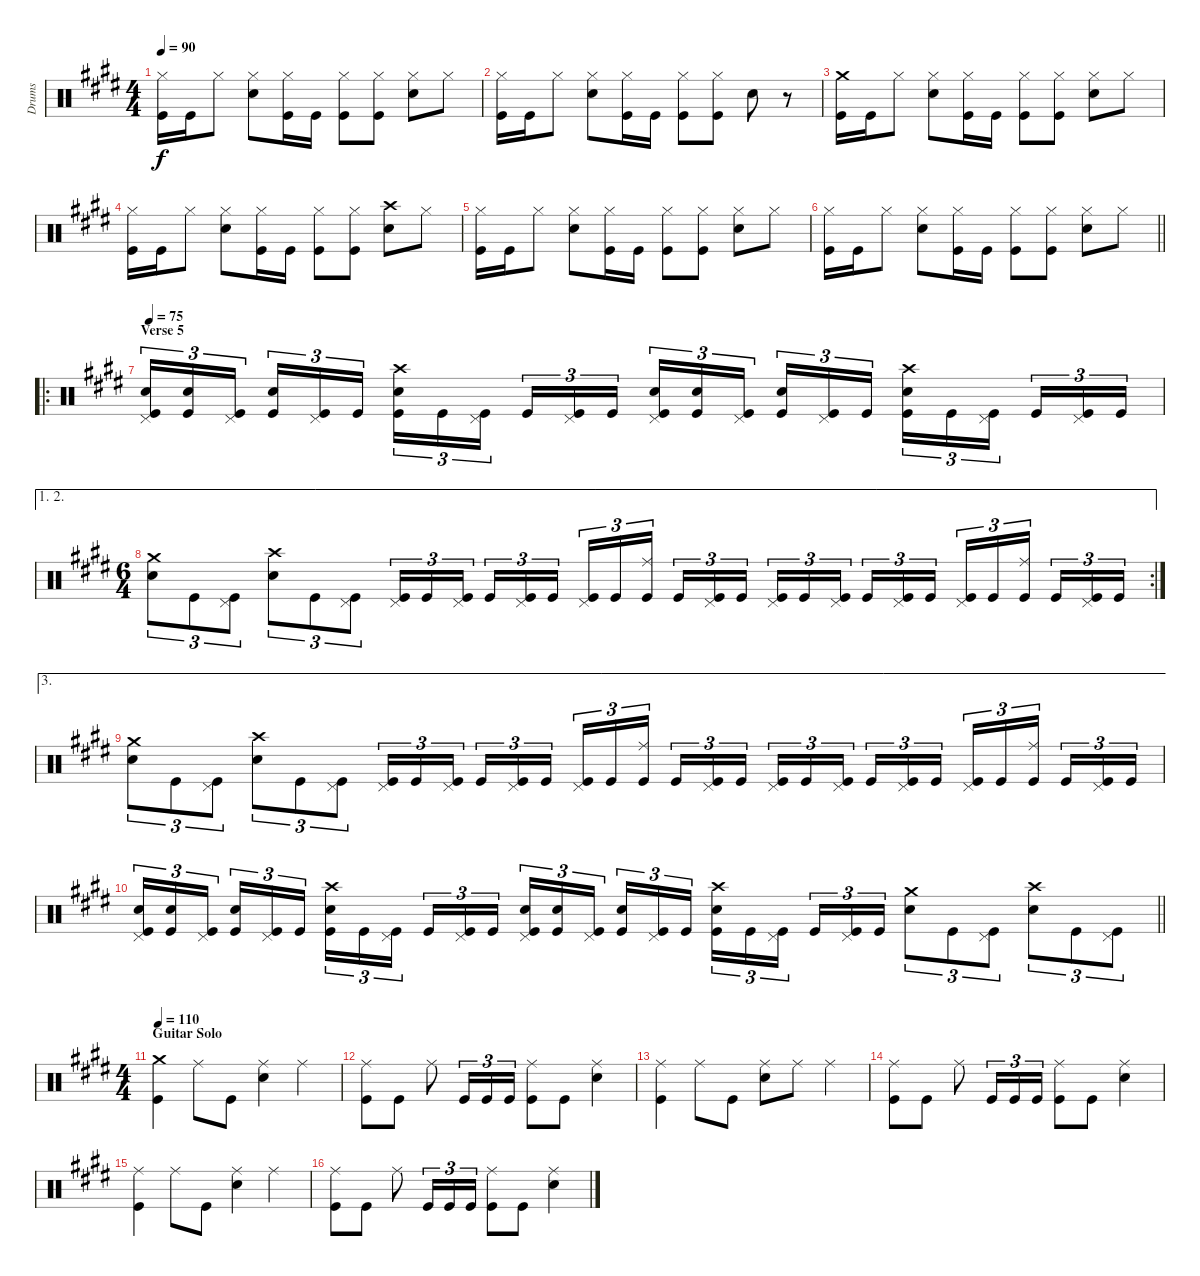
\track ("Drums" "Drums") {instrument percussion}
\staff {score}
\articulation defaults
\ts (4 4)
\tempo 90
\clef neutral
\ks e
("Hi-Hat (closed)" "Kick (hit)").16{dy f} "Kick (hit)".16 "Hi-Hat (closed)".8 ("Hi-Hat (closed)" "Snare (hit) 2").8 ("Hi-Hat (closed)" "Kick (hit)").16 "Kick (hit)".16 ("Hi-Hat (closed)" "Kick (hit)").8 ("Hi-Hat (closed)" "Kick (hit)").8 ("Hi-Hat (closed)" "Snare (hit) 2").8 "Hi-Hat (closed)".8 |
("Hi-Hat (closed)" "Kick (hit)").16 "Kick (hit)".16 "Hi-Hat (closed)".8 ("Hi-Hat (closed)" "Snare (hit) 2").8 ("Hi-Hat (closed)" "Kick (hit)").16 "Kick (hit)".16 ("Hi-Hat (closed)" "Kick (hit)").8 ("Hi-Hat (closed)" "Kick (hit)").8 "Snare (hit) 2".8 r.8 |
("Crash medium (hit)" "Kick (hit)").16 "Kick (hit)".16 "Hi-Hat (closed)".8 ("Hi-Hat (closed)" "Snare (hit) 2").8 ("Hi-Hat (closed)" "Kick (hit)").16 "Kick (hit)".16 ("Hi-Hat (closed)" "Kick (hit)").8 ("Hi-Hat (closed)" "Kick (hit)").8 ("Hi-Hat (closed)" "Snare (hit) 2").8 "Hi-Hat (closed)".8 |
("Hi-Hat (closed)" "Kick (hit)").16 "Kick (hit)".16 "Hi-Hat (closed)".8 ("Hi-Hat (closed)" "Snare (hit) 2").8 ("Hi-Hat (closed)" "Kick (hit)").16 "Kick (hit)".16 ("Hi-Hat (closed)" "Kick (hit)").8 ("Hi-Hat (closed)" "Kick (hit)").8 ("Crash high (hit)" "Snare (hit) 2").8 "Hi-Hat (closed)".8 |
("Hi-Hat (closed)" "Kick (hit)").16 "Kick (hit)".16 "Hi-Hat (closed)".8 ("Hi-Hat (closed)" "Snare (hit) 2").8 ("Hi-Hat (closed)" "Kick (hit)").16 "Kick (hit)".16 ("Hi-Hat (closed)" "Kick (hit)").8 ("Hi-Hat (closed)" "Kick (hit)").8 ("Hi-Hat (closed)" "Snare (hit) 2").8 "Hi-Hat (closed)".8 |
\barLineRight lightlight
("Hi-Hat (closed)" "Kick (hit)").16 "Kick (hit)".16 "Hi-Hat (closed)".8 ("Hi-Hat (closed)" "Snare (hit) 2").8 ("Hi-Hat (closed)" "Kick (hit)").16 "Kick (hit)".16 ("Hi-Hat (closed)" "Kick (hit)").8 ("Hi-Hat (closed)" "Kick (hit)").8 ("Hi-Hat (closed)" "Snare (hit) 2").8 "Hi-Hat (closed)".8 |
\ro
\section ("" "Verse 5")
\tempo 75
("Pedal Hi-Hat (hit)" "Snare (hit) 2" "Kick (hit)").16{tu (3 2)} ("Snare (hit) 2" "Kick (hit)").16{tu (3 2)} ("Pedal Hi-Hat (hit)" "Kick (hit)").16{tu (3 2) beam splitsecondary} ("Snare (hit) 2" "Kick (hit)").16{tu (3 2)} ("Pedal Hi-Hat (hit)" "Kick (hit)").16{tu (3 2)} "Kick (hit)".16{tu (3 2)} ("Crash high (hit)" "Snare (hit) 2" "Kick (hit)").16{tu (3 2)} "Kick (hit)".16{tu (3 2)} ("Pedal Hi-Hat (hit)" "Kick (hit)").16{tu (3 2) beam splitsecondary} "Kick (hit)".16{tu (3 2)} ("Pedal Hi-Hat (hit)" "Kick (hit)").16{tu (3 2)} "Kick (hit)".16{tu (3 2)} ("Pedal Hi-Hat (hit)" "Snare (hit) 2" "Kick (hit)").16{tu (3 2)} ("Snare (hit) 2" "Kick (hit)").16{tu (3 2)} ("Pedal Hi-Hat (hit)" "Kick (hit)").16{tu (3 2) beam splitsecondary} ("Snare (hit) 2" "Kick (hit)").16{tu (3 2)} ("Pedal Hi-Hat (hit)" "Kick (hit)").16{tu (3 2)} "Kick (hit)".16{tu (3 2)} ("Crash high (hit)" "Snare (hit) 2" "Kick (hit)").16{tu (3 2)} "Kick (hit)".16{tu (3 2)} ("Pedal Hi-Hat (hit)" "Kick (hit)").16{tu (3 2) beam splitsecondary} "Kick (hit)".16{tu (3 2)} ("Pedal Hi-Hat (hit)" "Kick (hit)").16{tu (3 2)} "Kick (hit)".16{tu (3 2)} |
\ae (1 2)
\rc 2
\ts (6 4)
("Crash medium (hit)" "Snare (hit) 2").8{tu (3 2)} "Kick (hit)".8{tu (3 2)} ("Pedal Hi-Hat (hit)" "Kick (hit)").8{tu (3 2)} ("Crash high (hit)" "Snare (hit) 2").8{tu (3 2)} "Kick (hit)".8{tu (3 2)} ("Pedal Hi-Hat (hit)" "Kick (hit)").8{tu (3 2)} ("Pedal Hi-Hat (hit)" "Kick (hit)").16{tu (3 2)} "Kick (hit)".16{tu (3 2)} ("Pedal Hi-Hat (hit)" "Kick (hit)").16{tu (3 2) beam splitsecondary} "Kick (hit)".16{tu (3 2)} ("Pedal Hi-Hat (hit)" "Kick (hit)").16{tu (3 2)} "Kick (hit)".16{tu (3 2)} ("Pedal Hi-Hat (hit)" "Kick (hit)").16{tu (3 2)} "Kick (hit)".16{tu (3 2)} ("Ride (middle)" "Kick (hit)").16{tu (3 2) beam splitsecondary} "Kick (hit)".16{tu (3 2)} ("Pedal Hi-Hat (hit)" "Kick (hit)").16{tu (3 2)} "Kick (hit)".16{tu (3 2) beam splitsecondary} ("Pedal Hi-Hat (hit)" "Kick (hit)").16{tu (3 2)} "Kick (hit)".16{tu (3 2)} ("Pedal Hi-Hat (hit)" "Kick (hit)").16{tu (3 2) beam splitsecondary} "Kick (hit)".16{tu (3 2)} ("Pedal Hi-Hat (hit)" "Kick (hit)").16{tu (3 2)} "Kick (hit)".16{tu (3 2) beam splitsecondary} ("Pedal Hi-Hat (hit)" "Kick (hit)").16{tu (3 2)} "Kick (hit)".16{tu (3 2)} ("Ride (middle)" "Kick (hit)").16{tu (3 2) beam splitsecondary} "Kick (hit)".16{tu (3 2)} ("Pedal Hi-Hat (hit)" "Kick (hit)").16{tu (3 2)} "Kick (hit)".16{tu (3 2)} |
\ae 3
("Crash medium (hit)" "Snare (hit) 2").8{tu (3 2)} "Kick (hit)".8{tu (3 2)} ("Pedal Hi-Hat (hit)" "Kick (hit)").8{tu (3 2)} ("Crash high (hit)" "Snare (hit) 2").8{tu (3 2)} "Kick (hit)".8{tu (3 2)} ("Pedal Hi-Hat (hit)" "Kick (hit)").8{tu (3 2)} ("Pedal Hi-Hat (hit)" "Kick (hit)").16{tu (3 2)} "Kick (hit)".16{tu (3 2)} ("Pedal Hi-Hat (hit)" "Kick (hit)").16{tu (3 2) beam splitsecondary} "Kick (hit)".16{tu (3 2)} ("Pedal Hi-Hat (hit)" "Kick (hit)").16{tu (3 2)} "Kick (hit)".16{tu (3 2)} ("Pedal Hi-Hat (hit)" "Kick (hit)").16{tu (3 2)} "Kick (hit)".16{tu (3 2)} ("Ride (middle)" "Kick (hit)").16{tu (3 2) beam splitsecondary} "Kick (hit)".16{tu (3 2)} ("Pedal Hi-Hat (hit)" "Kick (hit)").16{tu (3 2)} "Kick (hit)".16{tu (3 2) beam splitsecondary} ("Pedal Hi-Hat (hit)" "Kick (hit)").16{tu (3 2)} "Kick (hit)".16{tu (3 2)} ("Pedal Hi-Hat (hit)" "Kick (hit)").16{tu (3 2) beam splitsecondary} "Kick (hit)".16{tu (3 2)} ("Pedal Hi-Hat (hit)" "Kick (hit)").16{tu (3 2)} "Kick (hit)".16{tu (3 2) beam splitsecondary} ("Pedal Hi-Hat (hit)" "Kick (hit)").16{tu (3 2)} "Kick (hit)".16{tu (3 2)} ("Ride (middle)" "Kick (hit)").16{tu (3 2) beam splitsecondary} "Kick (hit)".16{tu (3 2)} ("Pedal Hi-Hat (hit)" "Kick (hit)").16{tu (3 2)} "Kick (hit)".16{tu (3 2)} |
\barLineRight lightlight
("Pedal Hi-Hat (hit)" "Snare (hit) 2" "Kick (hit)").16{tu (3 2)} ("Snare (hit) 2" "Kick (hit)").16{tu (3 2)} ("Pedal Hi-Hat (hit)" "Kick (hit)").16{tu (3 2) beam splitsecondary} ("Snare (hit) 2" "Kick (hit)").16{tu (3 2)} ("Pedal Hi-Hat (hit)" "Kick (hit)").16{tu (3 2)} "Kick (hit)".16{tu (3 2) beam splitsecondary} ("Crash high (hit)" "Snare (hit) 2" "Kick (hit)").16{tu (3 2)} "Kick (hit)".16{tu (3 2)} ("Pedal Hi-Hat (hit)" "Kick (hit)").16{tu (3 2) beam splitsecondary} "Kick (hit)".16{tu (3 2)} ("Pedal Hi-Hat (hit)" "Kick (hit)").16{tu (3 2)} "Kick (hit)".16{tu (3 2) beam splitsecondary} ("Pedal Hi-Hat (hit)" "Snare (hit) 2" "Kick (hit)").16{tu (3 2)} ("Snare (hit) 2" "Kick (hit)").16{tu (3 2)} ("Pedal Hi-Hat (hit)" "Kick (hit)").16{tu (3 2) beam splitsecondary} ("Snare (hit) 2" "Kick (hit)").16{tu (3 2)} ("Pedal Hi-Hat (hit)" "Kick (hit)").16{tu (3 2)} "Kick (hit)".16{tu (3 2)} ("Crash high (hit)" "Snare (hit) 2" "Kick (hit)").16{tu (3 2)} "Kick (hit)".16{tu (3 2)} ("Pedal Hi-Hat (hit)" "Kick (hit)").16{tu (3 2) beam splitsecondary} "Kick (hit)".16{tu (3 2)} ("Pedal Hi-Hat (hit)" "Kick (hit)").16{tu (3 2)} "Kick (hit)".16{tu (3 2)} ("Crash medium (hit)" "Snare (hit) 2").8{tu (3 2)} "Kick (hit)".8{tu (3 2)} ("Pedal Hi-Hat (hit)" "Kick (hit)").8{tu (3 2)} ("Crash high (hit)" "Snare (hit) 2").8{tu (3 2)} "Kick (hit)".8{tu (3 2)} ("Pedal Hi-Hat (hit)" "Kick (hit)").8{tu (3 2)} |
\ts (4 4)
\section ("" "Guitar Solo")
\tempo 110
("Crash medium (hit)" "Kick (hit)").4 "Ride (middle)".8 "Kick (hit)".8 ("Ride (middle)" "Snare (hit) 2").4 "Ride (middle)".4 |
("Ride (middle)" "Kick (hit)").8 "Kick (hit)".8 "Ride (middle)".8 "Kick (hit)".16{tu (3 2)} "Kick (hit)".16{tu (3 2)} "Kick (hit)".16{tu (3 2)} ("Ride (middle)" "Kick (hit)").8 "Kick (hit)".8 ("Ride (middle)" "Snare (hit) 2").4 |
("Ride (middle)" "Kick (hit)").4 "Ride (middle)".8 "Kick (hit)".8 ("Ride (middle)" "Snare (hit) 2").8 "Ride (middle)".8 "Ride (middle)".4 |
("Ride (middle)" "Kick (hit)").8 "Kick (hit)".8 "Ride (middle)".8 "Kick (hit)".16{tu (3 2)} "Kick (hit)".16{tu (3 2)} "Kick (hit)".16{tu (3 2)} ("Ride (middle)" "Kick (hit)").8 "Kick (hit)".8 ("Ride (middle)" "Snare (hit) 2").4 |
("Ride (middle)" "Kick (hit)").4 "Ride (middle)".8 "Kick (hit)".8 ("Ride (middle)" "Snare (hit) 2").4 "Ride (middle)".4 |
("Ride (middle)" "Kick (hit)").8 "Kick (hit)".8 "Ride (middle)".8 "Kick (hit)".16{tu (3 2)} "Kick (hit)".16{tu (3 2)} "Kick (hit)".16{tu (3 2)} ("Ride (middle)" "Kick (hit)").8 "Kick (hit)".8 ("Ride (middle)" "Snare (hit) 2").4
